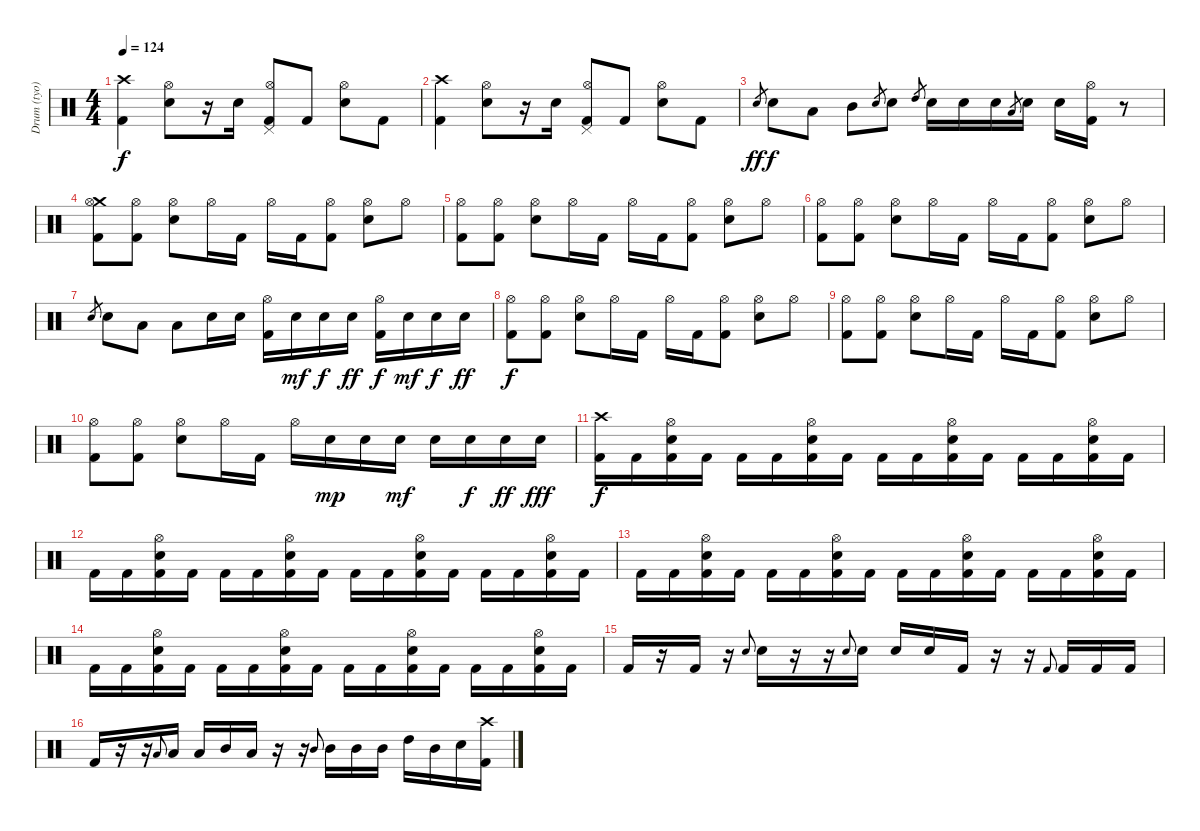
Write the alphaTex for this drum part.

\track ("Drum (tyo)" "Drum (tyo)") {instrument percussion}
\staff {score}
\articulation defaults
\ts (4 4)
\tempo 124
\clef neutral
\ks c
("Kick (hit) 2" "Crash high (hit)").4{dy f} ("Electric Snare (hit)" "Hi-Hat (open)").8 r.16 "Electric Snare (hit)".16 ("Kick (hit) 2" "Pedal Hi-Hat (hit)" "Hi-Hat (open)").8 "Kick (hit) 2".8 ("Electric Snare (hit)" "Hi-Hat (open)").8 "Kick (hit) 2".8 |
("Kick (hit) 2" "Crash high (hit)").4 ("Electric Snare (hit)" "Hi-Hat (open)").8 r.16 "Electric Snare (hit)".16 ("Kick (hit) 2" "Pedal Hi-Hat (hit)" "Hi-Hat (open)").8 "Kick (hit) 2".8 ("Electric Snare (hit)" "Hi-Hat (open)").8 "Kick (hit) 2".8 |
"Electric Snare (hit)".8{gr dy ff} "Electric Snare (hit)".8{dy f} "Low Tom (hit)".8 "Mid Tom (hit)".8 "Electric Snare (hit)".8{gr} "Electric Snare (hit)".8 "High Tom (hit)".8{gr} "Electric Snare (hit)".16 "Electric Snare (hit)".16 "Electric Snare (hit)".16 "Low Tom (hit)".8{gr} "Electric Snare (hit)".16 "Electric Snare (hit)".16 ("Hi-Hat (open)" "Kick (hit) 2").16 r.8 |
("Kick (hit) 2" "Crash medium (hit)" "Hi-Hat (open)").8 ("Kick (hit) 2" "Hi-Hat (open)").8 ("Electric Snare (hit)" "Hi-Hat (open)").8 "Hi-Hat (open)".16 "Kick (hit) 2".16 "Hi-Hat (open)".16 "Kick (hit) 2".16 ("Kick (hit) 2" "Hi-Hat (open)").8 ("Electric Snare (hit)" "Hi-Hat (open)").8 "Hi-Hat (open)".8 |
("Kick (hit) 2" "Hi-Hat (open)").8 ("Kick (hit) 2" "Hi-Hat (open)").8 ("Electric Snare (hit)" "Hi-Hat (open)").8 "Hi-Hat (open)".16 "Kick (hit) 2".16 "Hi-Hat (open)".16 "Kick (hit) 2".16 ("Kick (hit) 2" "Hi-Hat (open)").8 ("Electric Snare (hit)" "Hi-Hat (open)").8 "Hi-Hat (open)".8 |
("Kick (hit) 2" "Hi-Hat (open)").8 ("Kick (hit) 2" "Hi-Hat (open)").8 ("Electric Snare (hit)" "Hi-Hat (open)").8 "Hi-Hat (open)".16 "Kick (hit) 2".16 "Hi-Hat (open)".16 "Kick (hit) 2".16 ("Kick (hit) 2" "Hi-Hat (open)").8 ("Electric Snare (hit)" "Hi-Hat (open)").8 "Hi-Hat (open)".8 |
"Electric Snare (hit)".8{gr} "Electric Snare (hit)".8 "Low Tom (hit)".8 "Low Tom (hit)".8 "Electric Snare (hit)".16 "Electric Snare (hit)".16 ("Kick (hit) 2" "Hi-Hat (open)").16 "Electric Snare (hit)".16{dy mf} "Electric Snare (hit)".16{dy f} "Electric Snare (hit)".16{dy ff} ("Hi-Hat (open)" "Kick (hit) 2").16{dy f} "Electric Snare (hit)".16{dy mf} "Electric Snare (hit)".16{dy f} "Electric Snare (hit)".16{dy ff} |
("Kick (hit) 2" "Hi-Hat (open)").8{dy f} ("Kick (hit) 2" "Hi-Hat (open)").8 ("Electric Snare (hit)" "Hi-Hat (open)").8 "Hi-Hat (open)".16 "Kick (hit) 2".16 "Hi-Hat (open)".16 "Kick (hit) 2".16 ("Kick (hit) 2" "Hi-Hat (open)").8 ("Electric Snare (hit)" "Hi-Hat (open)").8 "Hi-Hat (open)".8 |
("Kick (hit) 2" "Hi-Hat (open)").8 ("Kick (hit) 2" "Hi-Hat (open)").8 ("Electric Snare (hit)" "Hi-Hat (open)").8 "Hi-Hat (open)".16 "Kick (hit) 2".16 "Hi-Hat (open)".16 "Kick (hit) 2".16 ("Kick (hit) 2" "Hi-Hat (open)").8 ("Electric Snare (hit)" "Hi-Hat (open)").8 "Hi-Hat (open)".8 |
("Kick (hit) 2" "Hi-Hat (open)").8 ("Kick (hit) 2" "Hi-Hat (open)").8 ("Electric Snare (hit)" "Hi-Hat (open)").8 "Hi-Hat (open)".16 "Kick (hit) 2".16 "Hi-Hat (open)".16 "Electric Snare (hit)".16{dy mp} "Electric Snare (hit)".16 "Electric Snare (hit)".16{dy mf} "Electric Snare (hit)".16 "Electric Snare (hit)".16{dy f} "Electric Snare (hit)".16{dy ff} "Electric Snare (hit)".16{dy fff} |
("Crash high (hit)" "Kick (hit) 2").16{dy f} "Kick (hit) 2".16 ("Electric Snare (hit)" "Kick (hit) 2" "Hi-Hat (open)").16 "Kick (hit) 2".16 "Kick (hit) 2".16 "Kick (hit) 2".16 ("Kick (hit) 2" "Electric Snare (hit)" "Hi-Hat (open)").16 "Kick (hit) 2".16 "Kick (hit) 2".16 "Kick (hit) 2".16 ("Kick (hit) 2" "Electric Snare (hit)" "Hi-Hat (open)").16 "Kick (hit) 2".16 "Kick (hit) 2".16 "Kick (hit) 2".16 ("Kick (hit) 2" "Electric Snare (hit)" "Hi-Hat (open)").16 "Kick (hit) 2".16 |
"Kick (hit) 2".16 "Kick (hit) 2".16 ("Electric Snare (hit)" "Kick (hit) 2" "Hi-Hat (open)").16 "Kick (hit) 2".16 "Kick (hit) 2".16 "Kick (hit) 2".16 ("Kick (hit) 2" "Electric Snare (hit)" "Hi-Hat (open)").16 "Kick (hit) 2".16 "Kick (hit) 2".16 "Kick (hit) 2".16 ("Kick (hit) 2" "Electric Snare (hit)" "Hi-Hat (open)").16 "Kick (hit) 2".16 "Kick (hit) 2".16 "Kick (hit) 2".16 ("Kick (hit) 2" "Electric Snare (hit)" "Hi-Hat (open)").16 "Kick (hit) 2".16 |
"Kick (hit) 2".16 "Kick (hit) 2".16 ("Electric Snare (hit)" "Kick (hit) 2" "Hi-Hat (open)").16 "Kick (hit) 2".16 "Kick (hit) 2".16 "Kick (hit) 2".16 ("Kick (hit) 2" "Electric Snare (hit)" "Hi-Hat (open)").16 "Kick (hit) 2".16 "Kick (hit) 2".16 "Kick (hit) 2".16 ("Kick (hit) 2" "Electric Snare (hit)" "Hi-Hat (open)").16 "Kick (hit) 2".16 "Kick (hit) 2".16 "Kick (hit) 2".16 ("Kick (hit) 2" "Electric Snare (hit)" "Hi-Hat (open)").16 "Kick (hit) 2".16 |
"Kick (hit) 2".16 "Kick (hit) 2".16 ("Electric Snare (hit)" "Kick (hit) 2" "Hi-Hat (open)").16 "Kick (hit) 2".16 "Kick (hit) 2".16 "Kick (hit) 2".16 ("Kick (hit) 2" "Electric Snare (hit)" "Hi-Hat (open)").16 "Kick (hit) 2".16 "Kick (hit) 2".16 "Kick (hit) 2".16 ("Kick (hit) 2" "Electric Snare (hit)" "Hi-Hat (open)").16 "Kick (hit) 2".16 "Kick (hit) 2".16 "Kick (hit) 2".16 ("Kick (hit) 2" "Electric Snare (hit)" "Hi-Hat (open)").16 "Kick (hit) 2".16 |
"Kick (hit) 2".16 r.16 "Kick (hit) 2".16 r.16 "Electric Snare (hit)".8{gr onbeat} "Electric Snare (hit)".16 r.16 r.16 "Electric Snare (hit)".8{gr onbeat} "Electric Snare (hit)".16 "Electric Snare (hit)".16 "Electric Snare (hit)".16 "Kick (hit) 2".16 r.16 r.16 "Kick (hit) 2".8{gr onbeat} "Kick (hit) 2".16 "Kick (hit) 2".16 "Kick (hit) 2".16 |
"Kick (hit) 2".16 r.16 r.16 "Low Tom (hit)".8{gr onbeat} "Low Tom (hit)".16 "Low Tom (hit)".16 "Mid Tom (hit)".16 "Low Tom (hit)".16 r.16 r.16 "Mid Tom (hit)".8{gr onbeat} "Mid Tom (hit)".16 "Mid Tom (hit)".16 "Mid Tom (hit)".16 "High Tom (hit)".16 "Mid Tom (hit)".16 "Electric Snare (hit)".16 ("Kick (hit) 2" "Crash high (hit)").16
